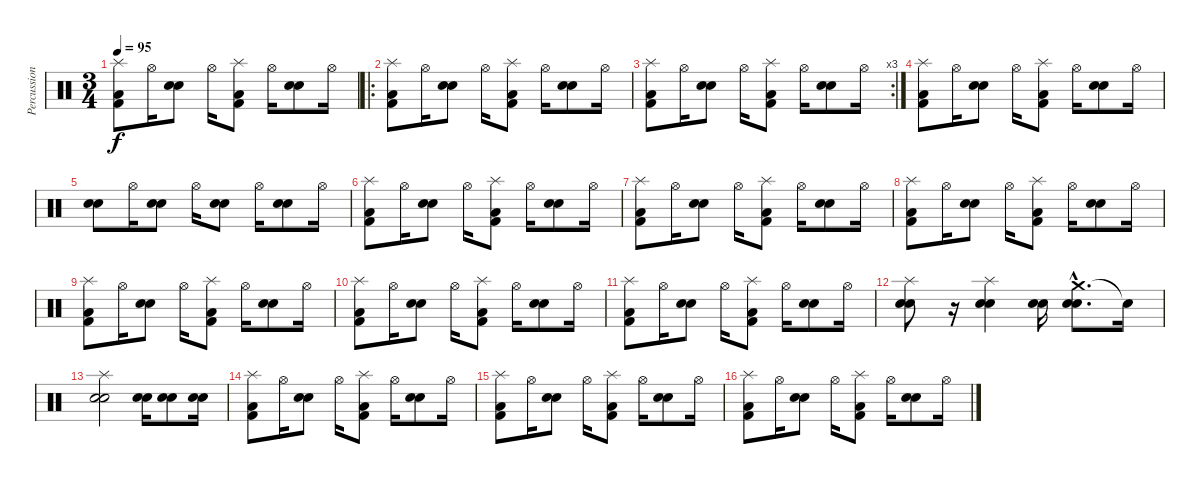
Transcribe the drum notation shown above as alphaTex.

\track ("Percussions" "Percussion") {instrument percussion}
\staff {score}
\articulation defaults
\ts (3 4)
\tempo 95
\clef neutral
\ks c
("Splash (hit)" "Kick (hit) 2" "Low Floor Tom (hit)").8{dy f} "Hi-Hat (open)".16 ("Snare (hit) 2" "Electric Snare (hit)").8 "Hi-Hat (open)".16 ("Splash (hit)" "Kick (hit) 2" "Low Floor Tom (hit)").8 "Hi-Hat (open)".16 ("Snare (hit) 2" "Electric Snare (hit)").8 "Hi-Hat (open)".16 |
\ro
("Splash (hit)" "Kick (hit) 2" "Low Floor Tom (hit)").8 "Hi-Hat (open)".16 ("Snare (hit) 2" "Electric Snare (hit)").8 "Hi-Hat (open)".16 ("Splash (hit)" "Kick (hit) 2" "Low Floor Tom (hit)").8 "Hi-Hat (open)".16 ("Snare (hit) 2" "Electric Snare (hit)").8 "Hi-Hat (open)".16 |
\rc 3
("Splash (hit)" "Kick (hit) 2" "Low Floor Tom (hit)").8 "Hi-Hat (open)".16 ("Snare (hit) 2" "Electric Snare (hit)").8 "Hi-Hat (open)".16 ("Splash (hit)" "Kick (hit) 2" "Low Floor Tom (hit)").8 "Hi-Hat (open)".16 ("Snare (hit) 2" "Electric Snare (hit)").8 "Hi-Hat (open)".16 |
("Splash (hit)" "Kick (hit) 2" "Low Floor Tom (hit)").8 "Hi-Hat (open)".16 ("Snare (hit) 2" "Electric Snare (hit)").8 "Hi-Hat (open)".16 ("Splash (hit)" "Kick (hit) 2" "Low Floor Tom (hit)").8 "Hi-Hat (open)".16 ("Snare (hit) 2" "Electric Snare (hit)").8 "Hi-Hat (open)".16 |
("Snare (hit) 2" "Electric Snare (hit)").8 "Hi-Hat (open)".16 ("Snare (hit) 2" "Electric Snare (hit)").8 "Hi-Hat (open)".16 ("Snare (hit) 2" "Electric Snare (hit)").8 "Hi-Hat (open)".16 ("Snare (hit) 2" "Electric Snare (hit)").8 "Hi-Hat (open)".16 |
("Splash (hit)" "Kick (hit) 2" "Low Floor Tom (hit)").8 "Hi-Hat (open)".16 ("Snare (hit) 2" "Electric Snare (hit)").8 "Hi-Hat (open)".16 ("Splash (hit)" "Kick (hit) 2" "Low Floor Tom (hit)").8 "Hi-Hat (open)".16 ("Snare (hit) 2" "Electric Snare (hit)").8 "Hi-Hat (open)".16 |
("Splash (hit)" "Kick (hit) 2" "Low Floor Tom (hit)").8 "Hi-Hat (open)".16 ("Snare (hit) 2" "Electric Snare (hit)").8 "Hi-Hat (open)".16 ("Splash (hit)" "Kick (hit) 2" "Low Floor Tom (hit)").8 "Hi-Hat (open)".16 ("Snare (hit) 2" "Electric Snare (hit)").8 "Hi-Hat (open)".16 |
("Splash (hit)" "Kick (hit) 2" "Low Floor Tom (hit)").8 "Hi-Hat (open)".16 ("Snare (hit) 2" "Electric Snare (hit)").8 "Hi-Hat (open)".16 ("Splash (hit)" "Kick (hit) 2" "Low Floor Tom (hit)").8 "Hi-Hat (open)".16 ("Snare (hit) 2" "Electric Snare (hit)").8 "Hi-Hat (open)".16 |
("Splash (hit)" "Kick (hit) 2" "Low Floor Tom (hit)").8 "Hi-Hat (open)".16 ("Snare (hit) 2" "Electric Snare (hit)").8 "Hi-Hat (open)".16 ("Splash (hit)" "Kick (hit) 2" "Low Floor Tom (hit)").8 "Hi-Hat (open)".16 ("Snare (hit) 2" "Electric Snare (hit)").8 "Hi-Hat (open)".16 |
("Splash (hit)" "Kick (hit) 2" "Low Floor Tom (hit)").8 "Hi-Hat (open)".16 ("Snare (hit) 2" "Electric Snare (hit)").8 "Hi-Hat (open)".16 ("Splash (hit)" "Kick (hit) 2" "Low Floor Tom (hit)").8 "Hi-Hat (open)".16 ("Snare (hit) 2" "Electric Snare (hit)").8 "Hi-Hat (open)".16 |
("Splash (hit)" "Kick (hit) 2" "Low Floor Tom (hit)").8 "Hi-Hat (open)".16 ("Snare (hit) 2" "Electric Snare (hit)").8 "Hi-Hat (open)".16 ("Splash (hit)" "Kick (hit) 2" "Low Floor Tom (hit)").8 "Hi-Hat (open)".16 ("Snare (hit) 2" "Electric Snare (hit)").8 "Hi-Hat (open)".16 |
("Splash (hit)" "Snare (hit) 2" "Electric Snare (hit)").8 r.16 ("Splash (hit)" "Snare (hit) 2" "Electric Snare (hit)").4 ("Snare (hit) 2" "Electric Snare (hit)").16 ("Crash medium (hit)"{hac} "Snare (hit) 2"{hac} "Electric Snare (hit)"{hac}).8{d} "Electric Snare (hit)"{t}.16 |
("Splash (hit)" "Snare (hit) 2" "Electric Snare (hit)").2 ("Snare (hit) 2" "Electric Snare (hit)").16 ("Snare (hit) 2" "Electric Snare (hit)").8 ("Snare (hit) 2" "Electric Snare (hit)").16 |
("Splash (hit)" "Kick (hit) 2" "Low Floor Tom (hit)").8 "Hi-Hat (open)".16 ("Snare (hit) 2" "Electric Snare (hit)").8 "Hi-Hat (open)".16 ("Splash (hit)" "Kick (hit) 2" "Low Floor Tom (hit)").8 "Hi-Hat (open)".16 ("Snare (hit) 2" "Electric Snare (hit)").8 "Hi-Hat (open)".16 |
("Splash (hit)" "Kick (hit) 2" "Low Floor Tom (hit)").8 "Hi-Hat (open)".16 ("Snare (hit) 2" "Electric Snare (hit)").8 "Hi-Hat (open)".16 ("Splash (hit)" "Kick (hit) 2" "Low Floor Tom (hit)").8 "Hi-Hat (open)".16 ("Snare (hit) 2" "Electric Snare (hit)").8 "Hi-Hat (open)".16 |
("Splash (hit)" "Kick (hit) 2" "Low Floor Tom (hit)").8 "Hi-Hat (open)".16 ("Snare (hit) 2" "Electric Snare (hit)").8 "Hi-Hat (open)".16 ("Splash (hit)" "Kick (hit) 2" "Low Floor Tom (hit)").8 "Hi-Hat (open)".16 ("Snare (hit) 2" "Electric Snare (hit)").8 "Hi-Hat (open)".16
